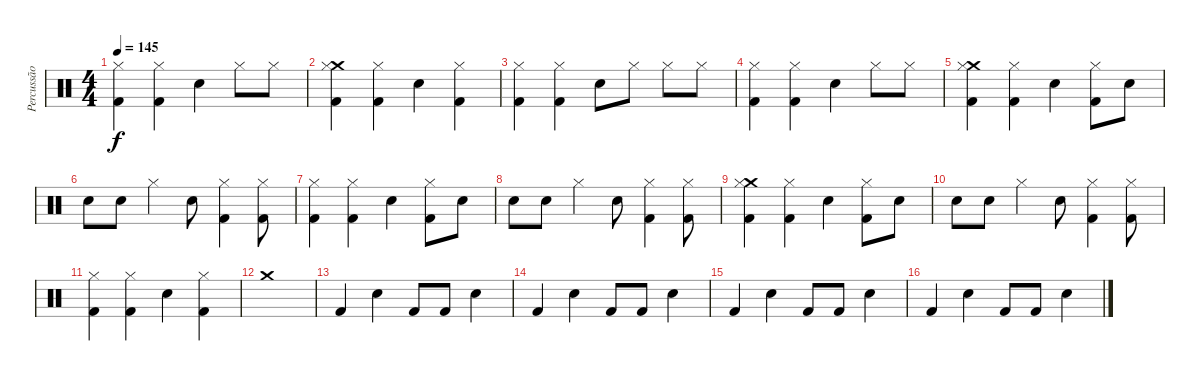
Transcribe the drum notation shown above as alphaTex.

\track ("Percussão" "Percussão") {instrument percussion}
\staff {score}
\articulation defaults
\ts (4 4)
\tempo 145
\clef neutral
\ks c
("Hi-Hat (closed)" "Kick (hit) 2").4{dy f} ("Hi-Hat (closed)" "Kick (hit) 2").4 "Snare (hit) 2".4 "Hi-Hat (closed)".8 "Hi-Hat (closed)".8 |
("Crash medium (hit)" "Hi-Hat (closed)" "Kick (hit) 2").4 ("Hi-Hat (closed)" "Kick (hit) 2").4 "Snare (hit) 2".4 ("Hi-Hat (closed)" "Kick (hit) 2").4 |
("Hi-Hat (closed)" "Kick (hit) 2").4 ("Hi-Hat (closed)" "Kick (hit) 2").4 "Snare (hit) 2".8 "Hi-Hat (closed)".8 "Hi-Hat (closed)".8 "Hi-Hat (closed)".8 |
("Hi-Hat (closed)" "Kick (hit) 2").4 ("Hi-Hat (closed)" "Kick (hit) 2").4 "Snare (hit) 2".4 "Hi-Hat (closed)".8 "Hi-Hat (closed)".8 |
("Crash medium (hit)" "Hi-Hat (closed)" "Kick (hit) 2").4 ("Hi-Hat (closed)" "Kick (hit) 2").4 "Snare (hit) 2".4 ("Hi-Hat (closed)" "Kick (hit) 2").8 "Snare (hit) 2".8 |
"Snare (hit) 2".8 "Snare (hit) 2".8 "Hi-Hat (closed)".4 "Snare (hit) 2".8 ("Hi-Hat (closed)" "Kick (hit) 2").4 ("Hi-Hat (closed)" "Kick (hit) 2").8 |
("Hi-Hat (closed)" "Kick (hit) 2").4 ("Hi-Hat (closed)" "Kick (hit) 2").4 "Snare (hit) 2".4 ("Hi-Hat (closed)" "Kick (hit) 2").8 "Snare (hit) 2".8 |
"Snare (hit) 2".8 "Snare (hit) 2".8 "Hi-Hat (closed)".4 "Snare (hit) 2".8 ("Hi-Hat (closed)" "Kick (hit) 2").4 ("Hi-Hat (closed)" "Kick (hit) 2").8 |
("Crash medium (hit)" "Hi-Hat (closed)" "Kick (hit) 2").4 ("Hi-Hat (closed)" "Kick (hit) 2").4 "Snare (hit) 2".4 ("Hi-Hat (closed)" "Kick (hit) 2").8 "Snare (hit) 2".8 |
"Snare (hit) 2".8 "Snare (hit) 2".8 "Hi-Hat (closed)".4 "Snare (hit) 2".8 ("Hi-Hat (closed)" "Kick (hit) 2").4 ("Hi-Hat (closed)" "Kick (hit) 2").8 |
("Hi-Hat (closed)" "Kick (hit) 2").4 ("Hi-Hat (closed)" "Kick (hit) 2").4 "Snare (hit) 2".4 ("Hi-Hat (closed)" "Kick (hit) 2").4 |
"Crash medium (hit)".1 |
"Kick (hit) 2".4 "Snare (hit) 2".4 "Kick (hit) 2".8 "Kick (hit) 2".8 "Snare (hit) 2".4 |
"Kick (hit) 2".4 "Snare (hit) 2".4 "Kick (hit) 2".8 "Kick (hit) 2".8 "Snare (hit) 2".4 |
"Kick (hit) 2".4 "Snare (hit) 2".4 "Kick (hit) 2".8 "Kick (hit) 2".8 "Snare (hit) 2".4 |
"Kick (hit) 2".4 "Snare (hit) 2".4 "Kick (hit) 2".8 "Kick (hit) 2".8 "Snare (hit) 2".4
